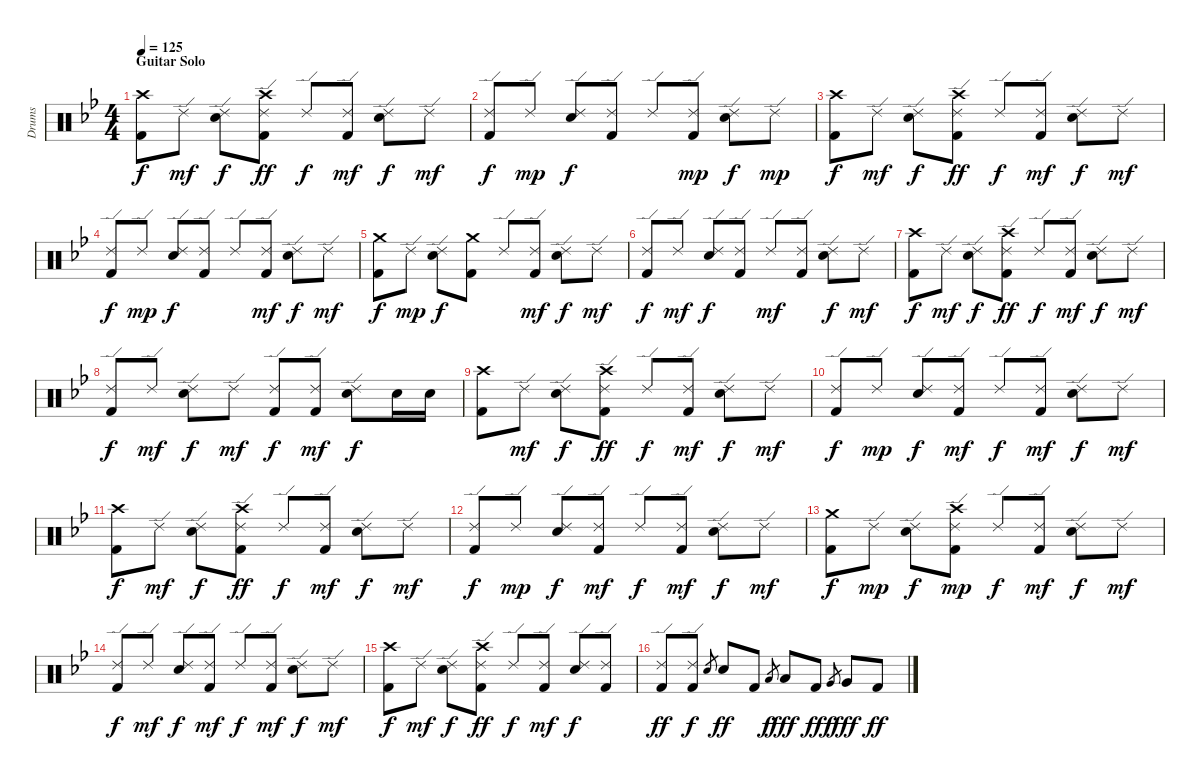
\track ("Drums" "Drums") {instrument percussion}
\staff {score}
\articulation defaults
\ts (4 4)
\section ("" "Guitar Solo")
\tempo 125
\clef neutral
\ks gminor
("Crash high (hit)" "Kick (hit) 2").8{dy f} "Ride (edge) 2".8{dy mf} ("Ride (edge) 2" "Snare (hit) 2").8{dy f} ("Crash high (hit)" "Ride (edge) 2" "Kick (hit) 2").8{dy ff} "Ride (edge) 2".8{dy f} ("Ride (edge) 2" "Kick (hit) 2").8{dy mf} ("Ride (edge) 2" "Snare (hit) 2").8{dy f} "Ride (edge) 2".8{dy mf} |
("Ride (edge) 2" "Kick (hit) 2").8{dy f} "Ride (edge) 2".8{dy mp} ("Ride (edge) 2" "Snare (hit) 2").8{dy f} ("Ride (edge) 2" "Kick (hit) 2").8 "Ride (edge) 2".8 ("Ride (edge) 2" "Kick (hit) 2").8{dy mp} ("Ride (edge) 2" "Snare (hit) 2").8{dy f} "Ride (edge) 2".8{dy mp} |
("Crash high (hit)" "Kick (hit) 2").8{dy f} "Ride (edge) 2".8{dy mf} ("Ride (edge) 2" "Snare (hit) 2").8{dy f} ("Crash high (hit)" "Ride (edge) 2" "Kick (hit) 2").8{dy ff} "Ride (edge) 2".8{dy f} ("Ride (edge) 2" "Kick (hit) 2").8{dy mf} ("Ride (edge) 2" "Snare (hit) 2").8{dy f} "Ride (edge) 2".8{dy mf} |
("Ride (edge) 2" "Kick (hit) 2").8{dy f} "Ride (edge) 2".8{dy mp} ("Ride (edge) 2" "Snare (hit) 2").8{dy f} ("Ride (edge) 2" "Kick (hit) 2").8 "Ride (edge) 2".8 ("Ride (edge) 2" "Kick (hit) 2").8{dy mf} ("Ride (edge) 2" "Snare (hit) 2").8{dy f} "Ride (edge) 2".8{dy mf} |
("Crash medium (hit)" "Kick (hit) 2").8{dy f} "Ride (edge) 2".8{dy mp} ("Ride (edge) 2" "Snare (hit) 2").8{dy f} ("Crash medium (hit)" "Kick (hit) 2").8 "Ride (edge) 2".8 ("Ride (edge) 2" "Kick (hit) 2").8{dy mf} ("Ride (edge) 2" "Snare (hit) 2").8{dy f} "Ride (edge) 2".8{dy mf} |
("Ride (edge) 2" "Kick (hit) 2").8{dy f} "Ride (edge) 2".8{dy mf} ("Ride (edge) 2" "Snare (hit) 2").8{dy f} ("Ride (edge) 2" "Kick (hit) 2").8 "Ride (edge) 2".8{dy mf} ("Ride (edge) 2" "Kick (hit) 2").8 ("Ride (edge) 2" "Snare (hit) 2").8{dy f} "Ride (edge) 2".8{dy mf} |
("Crash high (hit)" "Kick (hit) 2").8{dy f} "Ride (edge) 2".8{dy mf} ("Ride (edge) 2" "Snare (hit) 2").8{dy f} ("Crash high (hit)" "Ride (edge) 2" "Kick (hit) 2").8{dy ff} "Ride (edge) 2".8{dy f} ("Ride (edge) 2" "Kick (hit) 2").8{dy mf} ("Ride (edge) 2" "Snare (hit) 2").8{dy f} "Ride (edge) 2".8{dy mf} |
("Ride (edge) 2" "Kick (hit) 2").8{dy f} "Ride (edge) 2".8{dy mf} ("Ride (edge) 2" "Snare (hit) 2").8{dy f} "Ride (edge) 2".8{dy mf} ("Ride (edge) 2" "Kick (hit) 2").8{dy f} ("Ride (edge) 2" "Kick (hit) 2").8{dy mf} ("Ride (edge) 2" "Snare (hit) 2").8{dy f} "Snare (hit) 2".16 "Snare (hit) 2".16 |
("Crash high (hit)" "Kick (hit) 2").8 "Ride (edge) 2".8{dy mf} ("Ride (edge) 2" "Snare (hit) 2").8{dy f} ("Crash high (hit)" "Ride (edge) 2" "Kick (hit) 2").8{dy ff} "Ride (edge) 2".8{dy f} ("Ride (edge) 2" "Kick (hit) 2").8{dy mf} ("Ride (edge) 2" "Snare (hit) 2").8{dy f} "Ride (edge) 2".8{dy mf} |
("Ride (edge) 2" "Kick (hit) 2").8{dy f} "Ride (edge) 2".8{dy mp} ("Ride (edge) 2" "Snare (hit) 2").8{dy f} ("Ride (edge) 2" "Kick (hit) 2").8{dy mf} "Ride (edge) 2".8{dy f} ("Ride (edge) 2" "Kick (hit) 2").8{dy mf} ("Ride (edge) 2" "Snare (hit) 2").8{dy f} "Ride (edge) 2".8{dy mf} |
("Crash high (hit)" "Kick (hit) 2").8{dy f} "Ride (edge) 2".8{dy mf} ("Ride (edge) 2" "Snare (hit) 2").8{dy f} ("Crash high (hit)" "Ride (edge) 2" "Kick (hit) 2").8{dy ff} "Ride (edge) 2".8{dy f} ("Ride (edge) 2" "Kick (hit) 2").8{dy mf} ("Ride (edge) 2" "Snare (hit) 2").8{dy f} "Ride (edge) 2".8{dy mf} |
("Ride (edge) 2" "Kick (hit) 2").8{dy f} "Ride (edge) 2".8{dy mp} ("Ride (edge) 2" "Snare (hit) 2").8{dy f} ("Ride (edge) 2" "Kick (hit) 2").8{dy mf} "Ride (edge) 2".8{dy f} ("Ride (edge) 2" "Kick (hit) 2").8{dy mf} ("Ride (edge) 2" "Snare (hit) 2").8{dy f} "Ride (edge) 2".8{dy mf} |
("Crash medium (hit)" "Kick (hit) 2").8{dy f} "Ride (edge) 2".8{dy mp} ("Ride (edge) 2" "Snare (hit) 2").8{dy f} ("Crash high (hit)" "Ride (edge) 2" "Kick (hit) 2").8{dy mp} "Ride (edge) 2".8{dy f} ("Ride (edge) 2" "Kick (hit) 2").8{dy mf} ("Ride (edge) 2" "Snare (hit) 2").8{dy f} "Ride (edge) 2".8{dy mf} |
("Ride (edge) 2" "Kick (hit) 2").8{dy f} "Ride (edge) 2".8{dy mf} ("Ride (edge) 2" "Snare (hit) 2").8{dy f} ("Ride (edge) 2" "Kick (hit) 2").8{dy mf} "Ride (edge) 2".8{dy f} ("Ride (edge) 2" "Kick (hit) 2").8{dy mf} ("Ride (edge) 2" "Snare (hit) 2").8{dy f} "Ride (edge) 2".8{dy mf} |
("Crash high (hit)" "Kick (hit) 2").8{dy f} "Ride (edge) 2".8{dy mf} ("Ride (edge) 2" "Snare (hit) 2").8{dy f} ("Crash high (hit)" "Ride (edge) 2" "Kick (hit) 2").8{dy ff} "Ride (edge) 2".8{dy f} ("Ride (edge) 2" "Kick (hit) 2").8{dy mf} ("Ride (edge) 2" "Snare (hit) 2").8{dy f} ("Ride (edge) 2" "Kick (hit) 2").8 |
("Ride (edge) 2" "Kick (hit) 2").8{dy ff} ("Ride (edge) 2" "Kick (hit) 2").8{dy f} "Snare (hit) 2".8{gr} "Snare (hit) 2".8{dy ff} "Kick (hit) 2".8 "Low Tom (hit)".8{gr dy f} "Low Tom (hit)".8{dy fff} "Kick (hit) 2".8{dy ff} "Very Low Tom (hit)".8{gr dy f} "Very Low Tom (hit)".8{dy fff} "Kick (hit) 2".8{dy ff}
